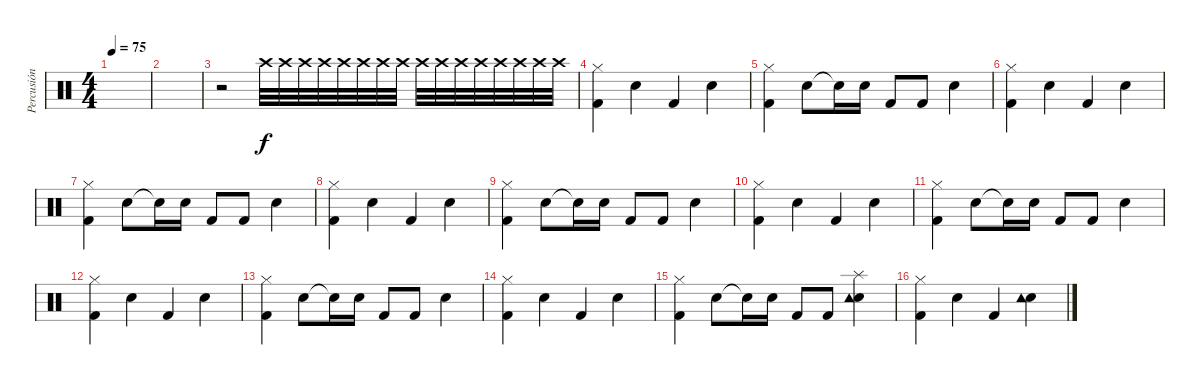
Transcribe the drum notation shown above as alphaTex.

\track ("Percusión" "Percusión") {instrument percussion}
\staff {score}
\articulation defaults
\ts (4 4)
\tempo 75
\clef neutral
\ks c
|
|
r.2 "Crash high (hit)".32{volume 1} "Crash high (hit)".32{volume 1} "Crash high (hit)".32{volume 2} "Crash high (hit)".32{volume 2} "Crash high (hit)".32{volume 3} "Crash high (hit)".32{volume 3} "Crash high (hit)".32{volume 4} "Crash high (hit)".32{volume 4} "Crash high (hit)".32{volume 5} "Crash high (hit)".32{volume 5} "Crash high (hit)".32{volume 7} "Crash high (hit)".32{volume 7} "Crash high (hit)".32{volume 8} "Crash high (hit)".32{volume 9} "Crash high (hit)".32{volume 10} "Crash high (hit)".32 |
("Kick (hit) 2" "Hi-Hat (closed)").4 "Snare (hit) 2".4 "Kick (hit) 2".4 "Snare (hit) 2".4 |
("Kick (hit) 2" "Hi-Hat (closed)").4 "Snare (hit) 2".8 "Snare (hit)"{t}.16 "Snare (hit) 2".16 "Kick (hit) 2".8 "Kick (hit) 2".8 "Snare (hit) 2".4 |
("Kick (hit) 2" "Hi-Hat (closed)").4 "Snare (hit) 2".4 "Kick (hit) 2".4 "Snare (hit) 2".4 |
("Kick (hit) 2" "Hi-Hat (closed)").4 "Snare (hit) 2".8 "Snare (hit)"{t}.16 "Snare (hit) 2".16 "Kick (hit) 2".8 "Kick (hit) 2".8 "Snare (hit) 2".4 |
("Kick (hit) 2" "Hi-Hat (closed)").4 "Snare (hit) 2".4 "Kick (hit) 2".4 "Snare (hit) 2".4 |
("Kick (hit) 2" "Hi-Hat (closed)").4 "Snare (hit) 2".8 "Snare (hit)"{t}.16 "Snare (hit) 2".16 "Kick (hit) 2".8 "Kick (hit) 2".8 "Snare (hit) 2".4 |
("Kick (hit) 2" "Hi-Hat (closed)").4 "Snare (hit) 2".4 "Kick (hit) 2".4 "Snare (hit) 2".4 |
("Kick (hit) 2" "Hi-Hat (closed)").4 "Snare (hit) 2".8 "Snare (hit)"{t}.16 "Snare (hit) 2".16 "Kick (hit) 2".8 "Kick (hit) 2".8 "Snare (hit) 2".4 |
("Kick (hit) 2" "Hi-Hat (closed)").4 "Snare (hit) 2".4 "Kick (hit) 2".4 "Snare (hit) 2".4 |
("Kick (hit) 2" "Hi-Hat (closed)").4 "Snare (hit) 2".8 "Snare (hit)"{t}.16 "Snare (hit) 2".16 "Kick (hit) 2".8 "Kick (hit) 2".8 "Snare (hit) 2".4 |
("Kick (hit) 2" "Hi-Hat (closed)").4 "Snare (hit) 2".4 "Kick (hit) 2".4 "Snare (hit) 2".4 |
("Kick (hit) 2" "Hi-Hat (closed)").4 "Snare (hit) 2".8 "Snare (hit)"{t}.16 "Snare (hit) 2".16 "Kick (hit) 2".8 "Kick (hit) 2".8 ("Snare (hit) 2" "Tambourine (hit)" "Splash (hit)").4 |
("Kick (hit) 2" "Hi-Hat (closed)").4 "Snare (hit) 2".4 "Kick (hit) 2".4 ("Snare (hit) 2" "Tambourine (hit)").4
